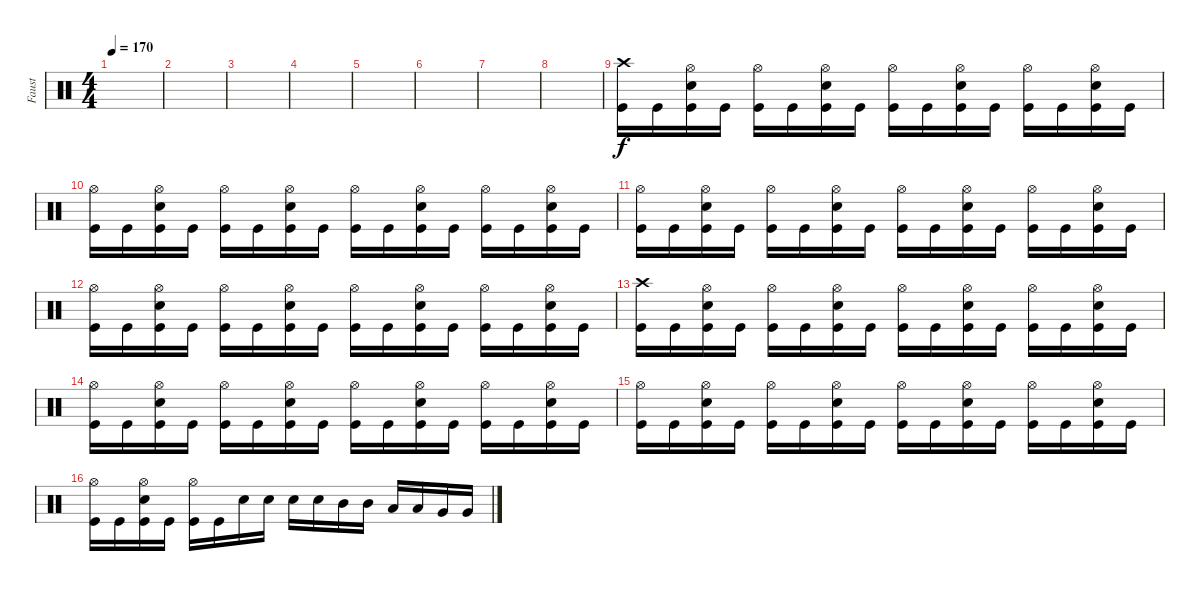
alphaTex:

\track ("Faust" "Faust") {instrument percussion}
\staff {score}
\articulation defaults
\ts (4 4)
\tempo 170
\clef neutral
\ks c
|
|
|
|
|
|
|
|
("Kick (hit)" "Crash high (hit)").16 "Kick (hit)".16 ("Kick (hit)" "Snare (hit) 2" "Hi-Hat (open)").16 "Kick (hit)".16 ("Kick (hit)" "Hi-Hat (open)").16 "Kick (hit)".16 ("Kick (hit)" "Snare (hit) 2" "Hi-Hat (open)").16 "Kick (hit)".16 ("Kick (hit)" "Hi-Hat (open)").16 "Kick (hit)".16 ("Kick (hit)" "Snare (hit) 2" "Hi-Hat (open)").16 "Kick (hit)".16 ("Kick (hit)" "Hi-Hat (open)").16 "Kick (hit)".16 ("Kick (hit)" "Snare (hit) 2" "Hi-Hat (open)").16 "Kick (hit)".16 |
("Kick (hit)" "Hi-Hat (open)").16 "Kick (hit)".16 ("Kick (hit)" "Snare (hit) 2" "Hi-Hat (open)").16 "Kick (hit)".16 ("Kick (hit)" "Hi-Hat (open)").16 "Kick (hit)".16 ("Kick (hit)" "Snare (hit) 2" "Hi-Hat (open)").16 "Kick (hit)".16 ("Kick (hit)" "Hi-Hat (open)").16 "Kick (hit)".16 ("Kick (hit)" "Snare (hit) 2" "Hi-Hat (open)").16 "Kick (hit)".16 ("Kick (hit)" "Hi-Hat (open)").16 "Kick (hit)".16 ("Kick (hit)" "Snare (hit) 2" "Hi-Hat (open)").16 "Kick (hit)".16 |
("Kick (hit)" "Hi-Hat (open)").16 "Kick (hit)".16 ("Kick (hit)" "Snare (hit) 2" "Hi-Hat (open)").16 "Kick (hit)".16 ("Kick (hit)" "Hi-Hat (open)").16 "Kick (hit)".16 ("Kick (hit)" "Snare (hit) 2" "Hi-Hat (open)").16 "Kick (hit)".16 ("Kick (hit)" "Hi-Hat (open)").16 "Kick (hit)".16 ("Kick (hit)" "Snare (hit) 2" "Hi-Hat (open)").16 "Kick (hit)".16 ("Kick (hit)" "Hi-Hat (open)").16 "Kick (hit)".16 ("Kick (hit)" "Snare (hit) 2" "Hi-Hat (open)").16 "Kick (hit)".16 |
("Kick (hit)" "Hi-Hat (open)").16 "Kick (hit)".16 ("Kick (hit)" "Snare (hit) 2" "Hi-Hat (open)").16 "Kick (hit)".16 ("Kick (hit)" "Hi-Hat (open)").16 "Kick (hit)".16 ("Kick (hit)" "Snare (hit) 2" "Hi-Hat (open)").16 "Kick (hit)".16 ("Kick (hit)" "Hi-Hat (open)").16 "Kick (hit)".16 ("Kick (hit)" "Snare (hit) 2" "Hi-Hat (open)").16 "Kick (hit)".16 ("Kick (hit)" "Hi-Hat (open)").16 "Kick (hit)".16 ("Kick (hit)" "Snare (hit) 2" "Hi-Hat (open)").16 "Kick (hit)".16 |
("Kick (hit)" "Crash high (hit)").16 "Kick (hit)".16 ("Kick (hit)" "Snare (hit) 2" "Hi-Hat (open)").16 "Kick (hit)".16 ("Kick (hit)" "Hi-Hat (open)").16 "Kick (hit)".16 ("Kick (hit)" "Snare (hit) 2" "Hi-Hat (open)").16 "Kick (hit)".16 ("Kick (hit)" "Hi-Hat (open)").16 "Kick (hit)".16 ("Kick (hit)" "Snare (hit) 2" "Hi-Hat (open)").16 "Kick (hit)".16 ("Kick (hit)" "Hi-Hat (open)").16 "Kick (hit)".16 ("Kick (hit)" "Snare (hit) 2" "Hi-Hat (open)").16 "Kick (hit)".16 |
("Kick (hit)" "Hi-Hat (open)").16 "Kick (hit)".16 ("Kick (hit)" "Snare (hit) 2" "Hi-Hat (open)").16 "Kick (hit)".16 ("Kick (hit)" "Hi-Hat (open)").16 "Kick (hit)".16 ("Kick (hit)" "Snare (hit) 2" "Hi-Hat (open)").16 "Kick (hit)".16 ("Kick (hit)" "Hi-Hat (open)").16 "Kick (hit)".16 ("Kick (hit)" "Snare (hit) 2" "Hi-Hat (open)").16 "Kick (hit)".16 ("Kick (hit)" "Hi-Hat (open)").16 "Kick (hit)".16 ("Kick (hit)" "Snare (hit) 2" "Hi-Hat (open)").16 "Kick (hit)".16 |
("Kick (hit)" "Hi-Hat (open)").16 "Kick (hit)".16 ("Kick (hit)" "Snare (hit) 2" "Hi-Hat (open)").16 "Kick (hit)".16 ("Kick (hit)" "Hi-Hat (open)").16 "Kick (hit)".16 ("Kick (hit)" "Snare (hit) 2" "Hi-Hat (open)").16 "Kick (hit)".16 ("Kick (hit)" "Hi-Hat (open)").16 "Kick (hit)".16 ("Kick (hit)" "Snare (hit) 2" "Hi-Hat (open)").16 "Kick (hit)".16 ("Kick (hit)" "Hi-Hat (open)").16 "Kick (hit)".16 ("Kick (hit)" "Snare (hit) 2" "Hi-Hat (open)").16 "Kick (hit)".16 |
("Kick (hit)" "Hi-Hat (open)").16 "Kick (hit)".16 ("Kick (hit)" "Snare (hit) 2" "Hi-Hat (open)").16 "Kick (hit)".16 ("Kick (hit)" "Hi-Hat (open)").16 "Kick (hit)".16 "Snare (hit) 2".16 "Snare (hit) 2".16 "Snare (hit) 2".16 "Snare (hit) 2".16 "Mid Tom (hit)".16 "Mid Tom (hit)".16 "Low Tom (hit)".16 "Low Tom (hit)".16 "Very Low Tom (hit)".16 "Very Low Tom (hit)".16
